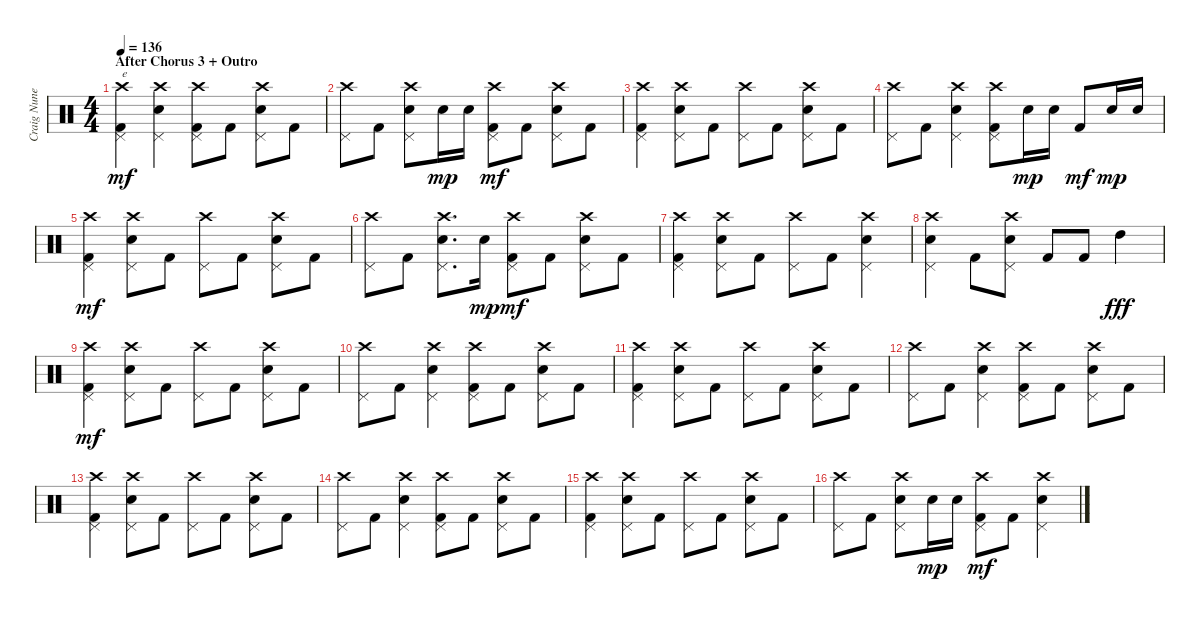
\track ("Craig Nunenmancher" "Craig Nune") {instrument percussion}
\staff {score}
\articulation defaults
\ts (4 4)
\section ("" "After Chorus 3 + Outro")
\tempo 136
\clef neutral
\ks c
("Crash high (hit)" "Pedal Hi-Hat (hit)" "Kick (hit) 2").4{txt "e" dy mf} ("Crash high (hit)" "Pedal Hi-Hat (hit)" "Snare (hit) 2").4 ("Crash high (hit)" "Pedal Hi-Hat (hit)" "Kick (hit) 2").8 "Kick (hit) 2".8 ("Crash high (hit)" "Pedal Hi-Hat (hit)" "Snare (hit) 2").8 "Kick (hit) 2".8 |
("Crash high (hit)" "Pedal Hi-Hat (hit)").8 "Kick (hit) 2".8 ("Crash high (hit)" "Pedal Hi-Hat (hit)" "Snare (hit) 2").8 "Snare (hit) 2".16{dy mp} "Snare (hit) 2".16 ("Crash high (hit)" "Pedal Hi-Hat (hit)" "Kick (hit) 2").8{dy mf} "Kick (hit) 2".8 ("Crash high (hit)" "Pedal Hi-Hat (hit)" "Snare (hit) 2").8 "Kick (hit) 2".8 |
("Crash high (hit)" "Pedal Hi-Hat (hit)" "Kick (hit) 2").4 ("Crash high (hit)" "Pedal Hi-Hat (hit)" "Snare (hit) 2").8 "Kick (hit) 2".8 ("Crash high (hit)" "Pedal Hi-Hat (hit)").8 "Kick (hit) 2".8 ("Crash high (hit)" "Pedal Hi-Hat (hit)" "Snare (hit) 2").8 "Kick (hit) 2".8 |
("Crash high (hit)" "Pedal Hi-Hat (hit)").8 "Kick (hit) 2".8 ("Crash high (hit)" "Pedal Hi-Hat (hit)" "Snare (hit) 2").4 ("Crash high (hit)" "Pedal Hi-Hat (hit)" "Kick (hit) 2").8 "Snare (hit) 2".16{dy mp} "Snare (hit) 2".16 "Kick (hit) 2".8{dy mf} "Snare (hit) 2".16{dy mp} "Snare (hit) 2".16 |
("Crash high (hit)" "Pedal Hi-Hat (hit)" "Kick (hit) 2").4{dy mf} ("Crash high (hit)" "Pedal Hi-Hat (hit)" "Snare (hit) 2").8 "Kick (hit) 2".8 ("Crash high (hit)" "Pedal Hi-Hat (hit)").8 "Kick (hit) 2".8 ("Crash high (hit)" "Pedal Hi-Hat (hit)" "Snare (hit) 2").8 "Kick (hit) 2".8 |
("Crash high (hit)" "Pedal Hi-Hat (hit)").8 "Kick (hit) 2".8 ("Crash high (hit)" "Pedal Hi-Hat (hit)" "Snare (hit) 2").8{d} "Snare (hit) 2".16{dy mp} ("Crash high (hit)" "Pedal Hi-Hat (hit)" "Kick (hit) 2").8{dy mf} "Kick (hit) 2".8 ("Crash high (hit)" "Pedal Hi-Hat (hit)" "Snare (hit) 2").8 "Kick (hit) 2".8 |
("Crash high (hit)" "Pedal Hi-Hat (hit)" "Kick (hit) 2").4 ("Crash high (hit)" "Pedal Hi-Hat (hit)" "Snare (hit) 2").8 "Kick (hit) 2".8 ("Crash high (hit)" "Pedal Hi-Hat (hit)").8 "Kick (hit) 2".8 ("Crash high (hit)" "Pedal Hi-Hat (hit)" "Snare (hit) 2").4 |
("Crash high (hit)" "Pedal Hi-Hat (hit)" "Snare (hit) 2").4 "Kick (hit) 2".8 ("Crash high (hit)" "Pedal Hi-Hat (hit)" "Snare (hit) 2").8 "Kick (hit) 2".8 "Kick (hit) 2".8 "High Tom (hit)".4{dy fff} |
("Crash high (hit)" "Pedal Hi-Hat (hit)" "Kick (hit) 2").4{dy mf} ("Crash high (hit)" "Pedal Hi-Hat (hit)" "Snare (hit) 2").8 "Kick (hit) 2".8 ("Crash high (hit)" "Pedal Hi-Hat (hit)").8 "Kick (hit) 2".8 ("Crash high (hit)" "Pedal Hi-Hat (hit)" "Snare (hit) 2").8 "Kick (hit) 2".8 |
("Crash high (hit)" "Pedal Hi-Hat (hit)").8 "Kick (hit) 2".8 ("Crash high (hit)" "Pedal Hi-Hat (hit)" "Snare (hit) 2").4 ("Crash high (hit)" "Pedal Hi-Hat (hit)" "Kick (hit) 2").8 "Kick (hit) 2".8 ("Crash high (hit)" "Pedal Hi-Hat (hit)" "Snare (hit) 2").8 "Kick (hit) 2".8 |
("Crash high (hit)" "Pedal Hi-Hat (hit)" "Kick (hit) 2").4 ("Crash high (hit)" "Pedal Hi-Hat (hit)" "Snare (hit) 2").8 "Kick (hit) 2".8 ("Crash high (hit)" "Pedal Hi-Hat (hit)").8 "Kick (hit) 2".8 ("Crash high (hit)" "Pedal Hi-Hat (hit)" "Snare (hit) 2").8 "Kick (hit) 2".8 |
("Crash high (hit)" "Pedal Hi-Hat (hit)").8 "Kick (hit) 2".8 ("Crash high (hit)" "Pedal Hi-Hat (hit)" "Snare (hit) 2").4 ("Crash high (hit)" "Pedal Hi-Hat (hit)" "Kick (hit) 2").8 "Kick (hit) 2".8 ("Crash high (hit)" "Pedal Hi-Hat (hit)" "Snare (hit) 2").8 "Kick (hit) 2".8 |
("Crash high (hit)" "Pedal Hi-Hat (hit)" "Kick (hit) 2").4 ("Crash high (hit)" "Pedal Hi-Hat (hit)" "Snare (hit) 2").8 "Kick (hit) 2".8 ("Crash high (hit)" "Pedal Hi-Hat (hit)").8 "Kick (hit) 2".8 ("Crash high (hit)" "Pedal Hi-Hat (hit)" "Snare (hit) 2").8 "Kick (hit) 2".8 |
("Crash high (hit)" "Pedal Hi-Hat (hit)").8 "Kick (hit) 2".8 ("Crash high (hit)" "Pedal Hi-Hat (hit)" "Snare (hit) 2").4 ("Crash high (hit)" "Pedal Hi-Hat (hit)" "Kick (hit) 2").8 "Kick (hit) 2".8 ("Crash high (hit)" "Pedal Hi-Hat (hit)" "Snare (hit) 2").8 "Kick (hit) 2".8 |
("Crash high (hit)" "Pedal Hi-Hat (hit)" "Kick (hit) 2").4 ("Crash high (hit)" "Pedal Hi-Hat (hit)" "Snare (hit) 2").8 "Kick (hit) 2".8 ("Crash high (hit)" "Pedal Hi-Hat (hit)").8 "Kick (hit) 2".8 ("Crash high (hit)" "Pedal Hi-Hat (hit)" "Snare (hit) 2").8 "Kick (hit) 2".8 |
("Crash high (hit)" "Pedal Hi-Hat (hit)").8 "Kick (hit) 2".8 ("Crash high (hit)" "Pedal Hi-Hat (hit)" "Snare (hit) 2").8 "Snare (hit) 2".16{dy mp} "Snare (hit) 2".16 ("Crash high (hit)" "Pedal Hi-Hat (hit)" "Kick (hit) 2").8{dy mf} "Kick (hit) 2".8 ("Crash high (hit)" "Pedal Hi-Hat (hit)" "Snare (hit) 2").4
